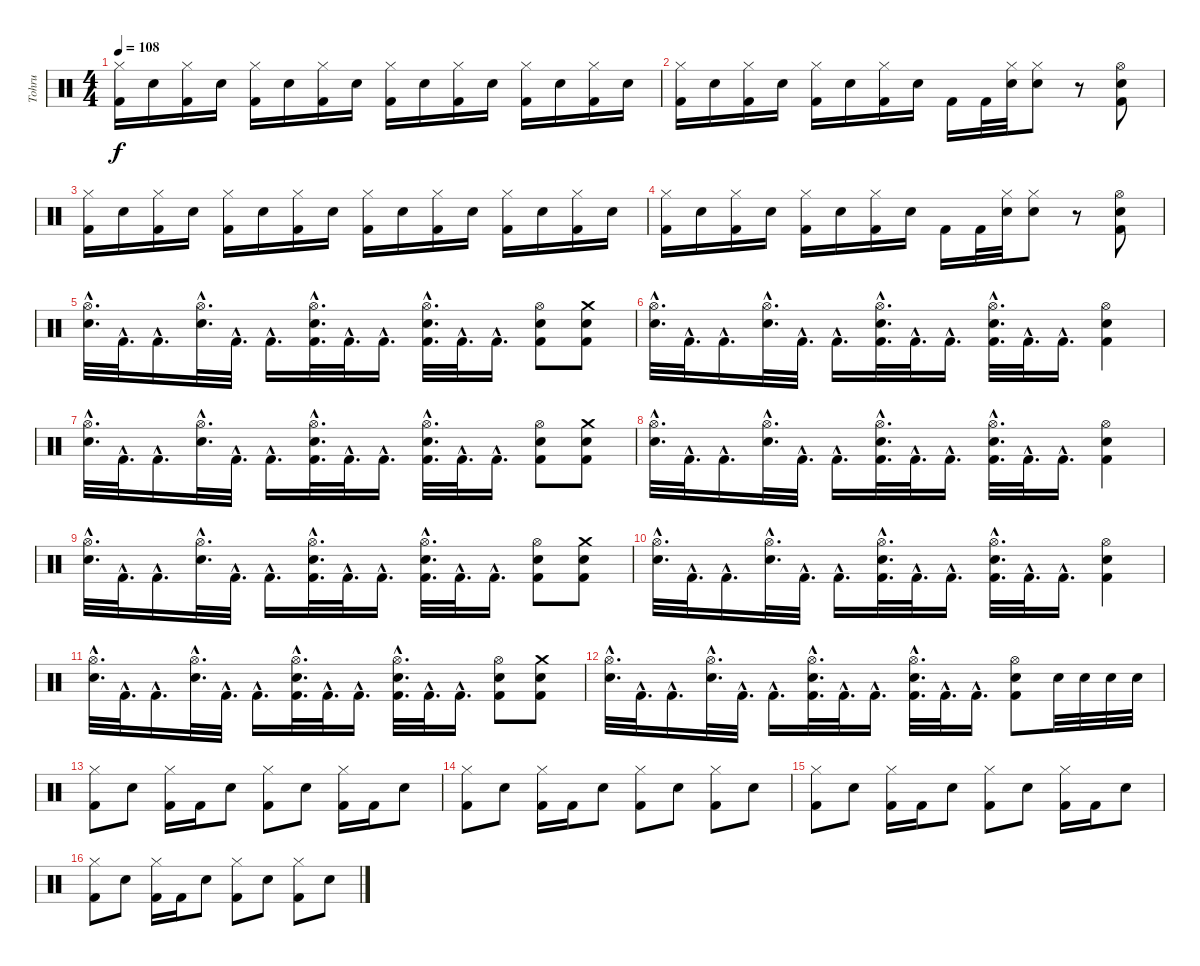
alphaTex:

\track ("Tohru" "Tohru") {instrument percussion}
\staff {score}
\articulation defaults
\ts (4 4)
\tempo 108
\clef neutral
\ks c
("Hi-Hat (closed)" "Kick (hit) 2").16{dy f} "Electric Snare (hit)".16 ("Hi-Hat (closed)" "Kick (hit) 2").16 "Electric Snare (hit)".16 ("Hi-Hat (closed)" "Kick (hit) 2").16 "Electric Snare (hit)".16 ("Hi-Hat (closed)" "Kick (hit) 2").16 "Electric Snare (hit)".16 ("Hi-Hat (closed)" "Kick (hit) 2").16 "Electric Snare (hit)".16 ("Hi-Hat (closed)" "Kick (hit) 2").16 "Electric Snare (hit)".16 ("Hi-Hat (closed)" "Kick (hit) 2").16 "Electric Snare (hit)".16 ("Hi-Hat (closed)" "Kick (hit) 2").16 "Electric Snare (hit)".16 |
("Hi-Hat (closed)" "Kick (hit) 2").16 "Electric Snare (hit)".16 ("Hi-Hat (closed)" "Kick (hit) 2").16 "Electric Snare (hit)".16 ("Hi-Hat (closed)" "Kick (hit) 2").16 "Electric Snare (hit)".16 ("Hi-Hat (closed)" "Kick (hit) 2").16 "Electric Snare (hit)".16 "Kick (hit) 2".16 "Kick (hit) 2".32 ("Hi-Hat (closed)" "Electric Snare (hit)").32 ("Hi-Hat (closed)" "Electric Snare (hit)").8 r.8 ("Kick (hit) 2" "Hi-Hat (open)" "Electric Snare (hit)").8 |
("Hi-Hat (closed)" "Kick (hit) 2").16 "Electric Snare (hit)".16 ("Hi-Hat (closed)" "Kick (hit) 2").16 "Electric Snare (hit)".16 ("Hi-Hat (closed)" "Kick (hit) 2").16 "Electric Snare (hit)".16 ("Hi-Hat (closed)" "Kick (hit) 2").16 "Electric Snare (hit)".16 ("Hi-Hat (closed)" "Kick (hit) 2").16 "Electric Snare (hit)".16 ("Hi-Hat (closed)" "Kick (hit) 2").16 "Electric Snare (hit)".16 ("Hi-Hat (closed)" "Kick (hit) 2").16 "Electric Snare (hit)".16 ("Hi-Hat (closed)" "Kick (hit) 2").16 "Electric Snare (hit)".16 |
("Hi-Hat (closed)" "Kick (hit) 2").16 "Electric Snare (hit)".16 ("Hi-Hat (closed)" "Kick (hit) 2").16 "Electric Snare (hit)".16 ("Hi-Hat (closed)" "Kick (hit) 2").16 "Electric Snare (hit)".16 ("Hi-Hat (closed)" "Kick (hit) 2").16 "Electric Snare (hit)".16 "Kick (hit) 2".16 "Kick (hit) 2".32 ("Hi-Hat (closed)" "Electric Snare (hit)").32 ("Hi-Hat (closed)" "Electric Snare (hit)").8 r.8 ("Kick (hit) 2" "Hi-Hat (open)" "Electric Snare (hit)").8 |
("Electric Snare (hit)"{hac} "Hi-Hat (open)"{hac}).32{d} "Kick (hit) 2"{hac}.32{d} "Kick (hit) 2"{hac}.16{d} ("Electric Snare (hit)"{hac} "Hi-Hat (open)"{hac}).32{d} "Kick (hit) 2"{hac}.32{d} "Kick (hit) 2"{hac}.16{d} ("Electric Snare (hit)"{hac} "Kick (hit) 2"{hac} "Hi-Hat (open)"{hac}).32{d} "Kick (hit) 2"{hac}.32{d} "Kick (hit) 2"{hac}.16{d} ("Electric Snare (hit)"{hac} "Kick (hit) 2"{hac} "Hi-Hat (open)"{hac}).32{d} "Kick (hit) 2"{hac}.32{d} "Kick (hit) 2"{hac}.16{d} ("Electric Snare (hit)" "Kick (hit) 2" "Hi-Hat (open)").8 ("Electric Snare (hit)" "Kick (hit) 2" "Crash medium (hit)").8 |
("Electric Snare (hit)"{hac} "Hi-Hat (open)"{hac}).32{d} "Kick (hit) 2"{hac}.32{d} "Kick (hit) 2"{hac}.16{d} ("Electric Snare (hit)"{hac} "Hi-Hat (open)"{hac}).32{d} "Kick (hit) 2"{hac}.32{d} "Kick (hit) 2"{hac}.16{d} ("Electric Snare (hit)"{hac} "Kick (hit) 2"{hac} "Hi-Hat (open)"{hac}).32{d} "Kick (hit) 2"{hac}.32{d} "Kick (hit) 2"{hac}.16{d} ("Electric Snare (hit)"{hac} "Kick (hit) 2"{hac} "Hi-Hat (open)"{hac}).32{d} "Kick (hit) 2"{hac}.32{d} "Kick (hit) 2"{hac}.16{d} ("Electric Snare (hit)" "Kick (hit) 2" "Hi-Hat (open)").4 |
("Electric Snare (hit)"{hac} "Hi-Hat (open)"{hac}).32{d} "Kick (hit) 2"{hac}.32{d} "Kick (hit) 2"{hac}.16{d} ("Electric Snare (hit)"{hac} "Hi-Hat (open)"{hac}).32{d} "Kick (hit) 2"{hac}.32{d} "Kick (hit) 2"{hac}.16{d} ("Electric Snare (hit)"{hac} "Kick (hit) 2"{hac} "Hi-Hat (open)"{hac}).32{d} "Kick (hit) 2"{hac}.32{d} "Kick (hit) 2"{hac}.16{d} ("Electric Snare (hit)"{hac} "Kick (hit) 2"{hac} "Hi-Hat (open)"{hac}).32{d} "Kick (hit) 2"{hac}.32{d} "Kick (hit) 2"{hac}.16{d} ("Electric Snare (hit)" "Kick (hit) 2" "Hi-Hat (open)").8 ("Electric Snare (hit)" "Kick (hit) 2" "Crash medium (hit)").8 |
("Electric Snare (hit)"{hac} "Hi-Hat (open)"{hac}).32{d} "Kick (hit) 2"{hac}.32{d} "Kick (hit) 2"{hac}.16{d} ("Electric Snare (hit)"{hac} "Hi-Hat (open)"{hac}).32{d} "Kick (hit) 2"{hac}.32{d} "Kick (hit) 2"{hac}.16{d} ("Electric Snare (hit)"{hac} "Kick (hit) 2"{hac} "Hi-Hat (open)"{hac}).32{d} "Kick (hit) 2"{hac}.32{d} "Kick (hit) 2"{hac}.16{d} ("Electric Snare (hit)"{hac} "Kick (hit) 2"{hac} "Hi-Hat (open)"{hac}).32{d} "Kick (hit) 2"{hac}.32{d} "Kick (hit) 2"{hac}.16{d} ("Electric Snare (hit)" "Kick (hit) 2" "Hi-Hat (open)").4 |
("Electric Snare (hit)"{hac} "Hi-Hat (open)"{hac}).32{d} "Kick (hit) 2"{hac}.32{d} "Kick (hit) 2"{hac}.16{d} ("Electric Snare (hit)"{hac} "Hi-Hat (open)"{hac}).32{d} "Kick (hit) 2"{hac}.32{d} "Kick (hit) 2"{hac}.16{d} ("Electric Snare (hit)"{hac} "Kick (hit) 2"{hac} "Hi-Hat (open)"{hac}).32{d} "Kick (hit) 2"{hac}.32{d} "Kick (hit) 2"{hac}.16{d} ("Electric Snare (hit)"{hac} "Kick (hit) 2"{hac} "Hi-Hat (open)"{hac}).32{d} "Kick (hit) 2"{hac}.32{d} "Kick (hit) 2"{hac}.16{d} ("Electric Snare (hit)" "Kick (hit) 2" "Hi-Hat (open)").8 ("Electric Snare (hit)" "Kick (hit) 2" "Crash medium (hit)").8 |
("Electric Snare (hit)"{hac} "Hi-Hat (open)"{hac}).32{d} "Kick (hit) 2"{hac}.32{d} "Kick (hit) 2"{hac}.16{d} ("Electric Snare (hit)"{hac} "Hi-Hat (open)"{hac}).32{d} "Kick (hit) 2"{hac}.32{d} "Kick (hit) 2"{hac}.16{d} ("Electric Snare (hit)"{hac} "Kick (hit) 2"{hac} "Hi-Hat (open)"{hac}).32{d} "Kick (hit) 2"{hac}.32{d} "Kick (hit) 2"{hac}.16{d} ("Electric Snare (hit)"{hac} "Kick (hit) 2"{hac} "Hi-Hat (open)"{hac}).32{d} "Kick (hit) 2"{hac}.32{d} "Kick (hit) 2"{hac}.16{d} ("Electric Snare (hit)" "Kick (hit) 2" "Hi-Hat (open)").4 |
("Electric Snare (hit)"{hac} "Hi-Hat (open)"{hac}).32{d} "Kick (hit) 2"{hac}.32{d} "Kick (hit) 2"{hac}.16{d} ("Electric Snare (hit)"{hac} "Hi-Hat (open)"{hac}).32{d} "Kick (hit) 2"{hac}.32{d} "Kick (hit) 2"{hac}.16{d} ("Electric Snare (hit)"{hac} "Kick (hit) 2"{hac} "Hi-Hat (open)"{hac}).32{d} "Kick (hit) 2"{hac}.32{d} "Kick (hit) 2"{hac}.16{d} ("Electric Snare (hit)"{hac} "Kick (hit) 2"{hac} "Hi-Hat (open)"{hac}).32{d} "Kick (hit) 2"{hac}.32{d} "Kick (hit) 2"{hac}.16{d} ("Electric Snare (hit)" "Kick (hit) 2" "Hi-Hat (open)").8 ("Electric Snare (hit)" "Kick (hit) 2" "Crash medium (hit)").8 |
("Electric Snare (hit)"{hac} "Hi-Hat (open)"{hac}).32{d} "Kick (hit) 2"{hac}.32{d} "Kick (hit) 2"{hac}.16{d} ("Electric Snare (hit)"{hac} "Hi-Hat (open)"{hac}).32{d} "Kick (hit) 2"{hac}.32{d} "Kick (hit) 2"{hac}.16{d} ("Electric Snare (hit)"{hac} "Kick (hit) 2"{hac} "Hi-Hat (open)"{hac}).32{d} "Kick (hit) 2"{hac}.32{d} "Kick (hit) 2"{hac}.16{d} ("Electric Snare (hit)"{hac} "Kick (hit) 2"{hac} "Hi-Hat (open)"{hac}).32{d} "Kick (hit) 2"{hac}.32{d} "Kick (hit) 2"{hac}.16{d} ("Electric Snare (hit)" "Kick (hit) 2" "Hi-Hat (open)").8 "Electric Snare (hit)".32 "Electric Snare (hit)".32 "Electric Snare (hit)".32 "Electric Snare (hit)".32 |
("Hi-Hat (closed)" "Kick (hit) 2").8 "Electric Snare (hit)".8 ("Hi-Hat (closed)" "Kick (hit) 2").16 "Kick (hit) 2".16 "Electric Snare (hit)".8 ("Hi-Hat (closed)" "Kick (hit) 2").8 "Electric Snare (hit)".8 ("Hi-Hat (closed)" "Kick (hit) 2").16 "Kick (hit) 2".16 "Electric Snare (hit)".8 |
("Hi-Hat (closed)" "Kick (hit) 2").8 "Electric Snare (hit)".8 ("Hi-Hat (closed)" "Kick (hit) 2").16 "Kick (hit) 2".16 "Electric Snare (hit)".8 ("Hi-Hat (closed)" "Kick (hit) 2").8 "Electric Snare (hit)".8 ("Kick (hit) 2" "Hi-Hat (closed)").8 "Electric Snare (hit)".8 |
("Hi-Hat (closed)" "Kick (hit) 2").8 "Electric Snare (hit)".8 ("Hi-Hat (closed)" "Kick (hit) 2").16 "Kick (hit) 2".16 "Electric Snare (hit)".8 ("Hi-Hat (closed)" "Kick (hit) 2").8 "Electric Snare (hit)".8 ("Hi-Hat (closed)" "Kick (hit) 2").16 "Kick (hit) 2".16 "Electric Snare (hit)".8 |
("Hi-Hat (closed)" "Kick (hit) 2").8 "Electric Snare (hit)".8 ("Hi-Hat (closed)" "Kick (hit) 2").16 "Kick (hit) 2".16 "Electric Snare (hit)".8 ("Hi-Hat (closed)" "Kick (hit) 2").8 "Electric Snare (hit)".8 ("Kick (hit) 2" "Hi-Hat (closed)").8 "Electric Snare (hit)".8
